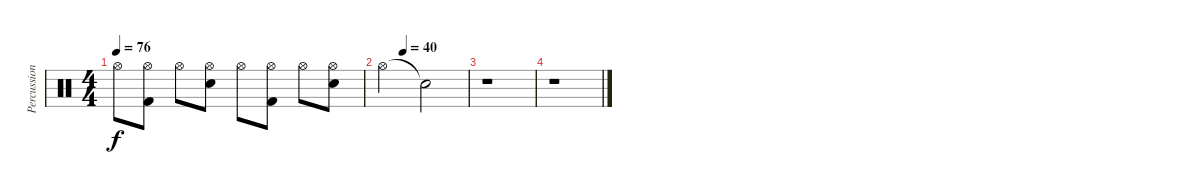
\track ("Percussions" "Percussion") {instrument percussion}
\staff {score}
\articulation defaults
\ts (4 4)
\tempo 76
\clef neutral
\ks c "Hi-Hat (open)".8{dy f}
("Kick (hit) 2" "Hi-Hat (open)").8 "Hi-Hat (open)".8 ("Hi-Hat (open)" "Snare (hit) 2").8 "Hi-Hat (open)".8 ("Kick (hit) 2" "Hi-Hat (open)").8 "Hi-Hat (open)".8 ("Hi-Hat (open)" "Snare (hit) 2").8 |
\tempo (40 0.25)
"Hi-Hat (open)".2 "Snare (hit)"{t}.2 |
r.1 |
r.1
